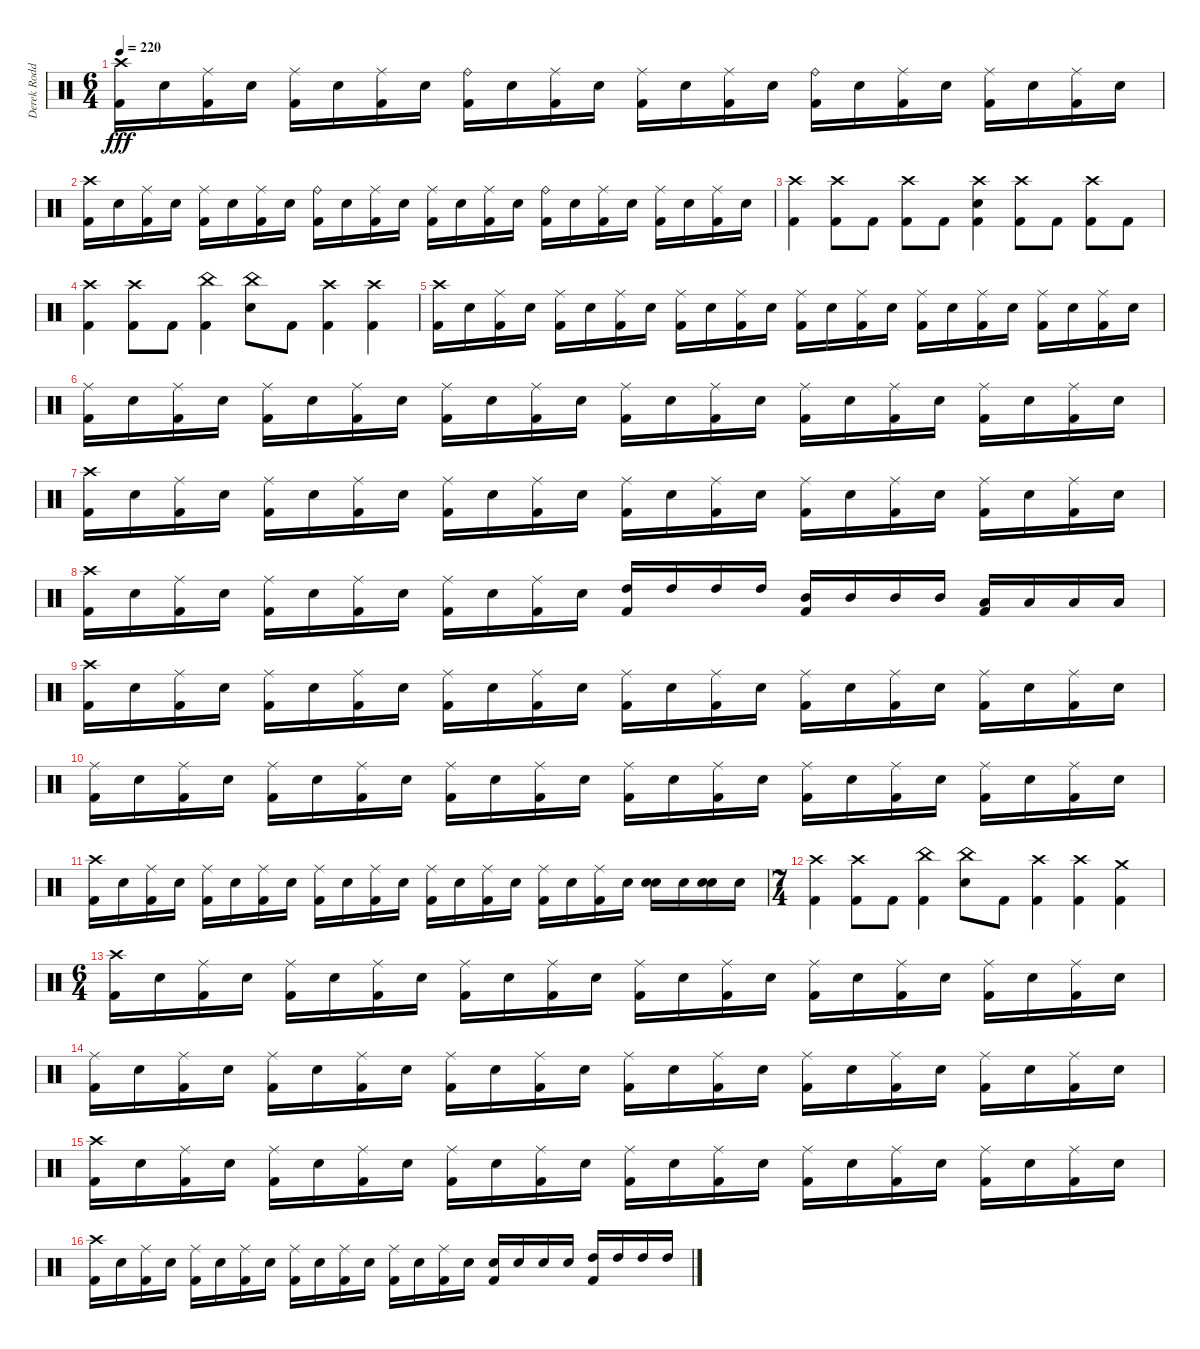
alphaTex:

\track ("Derek Roddy" "Derek Rodd") {instrument percussion}
\staff {score}
\articulation defaults
\ts (6 4)
\tempo 220
\clef neutral
\ks c
("Crash high (hit)" "Kick (hit) 2").16{dy fff} "Snare (hit) 2".16 ("Ride (middle)" "Kick (hit) 2").16 "Snare (hit) 2".16 ("Ride (middle)" "Kick (hit) 2").16 "Snare (hit) 2".16 ("Ride (middle)" "Kick (hit) 2").16 "Snare (hit) 2".16 ("Ride (bell)" "Kick (hit) 2").16 "Snare (hit) 2".16 ("Ride (middle)" "Kick (hit) 2").16 "Snare (hit) 2".16 ("Ride (middle)" "Kick (hit) 2").16 "Snare (hit) 2".16 ("Ride (middle)" "Kick (hit) 2").16 "Snare (hit) 2".16 ("Ride (bell)" "Kick (hit) 2").16 "Snare (hit) 2".16 ("Ride (middle)" "Kick (hit) 2").16 "Snare (hit) 2".16 ("Ride (middle)" "Kick (hit) 2").16 "Snare (hit) 2".16 ("Ride (middle)" "Kick (hit) 2").16 "Snare (hit) 2".16 |
("Crash high (hit)" "Kick (hit) 2").16 "Snare (hit) 2".16 ("Ride (middle)" "Kick (hit) 2").16 "Snare (hit) 2".16 ("Ride (middle)" "Kick (hit) 2").16 "Snare (hit) 2".16 ("Ride (middle)" "Kick (hit) 2").16 "Snare (hit) 2".16 ("Ride (bell)" "Kick (hit) 2").16 "Snare (hit) 2".16 ("Ride (middle)" "Kick (hit) 2").16 "Snare (hit) 2".16 ("Ride (middle)" "Kick (hit) 2").16 "Snare (hit) 2".16 ("Ride (middle)" "Kick (hit) 2").16 "Snare (hit) 2".16 ("Ride (bell)" "Kick (hit) 2").16 "Snare (hit) 2".16 ("Ride (middle)" "Kick (hit) 2").16 "Snare (hit) 2".16 ("Ride (middle)" "Kick (hit) 2").16 "Snare (hit) 2".16 ("Ride (middle)" "Kick (hit) 2").16 "Snare (hit) 2".16 |
("Crash high (hit)" "Kick (hit) 2").4 ("Crash high (hit)" "Kick (hit) 2").8 "Kick (hit) 2".8 ("Crash high (hit)" "Kick (hit) 2").8 "Kick (hit) 2".8 ("Crash high (hit)" "Snare (hit) 2" "Kick (hit) 2").4 ("Crash high (hit)" "Kick (hit) 2").8 "Kick (hit) 2".8 ("Crash high (hit)" "Kick (hit) 2").8 "Kick (hit) 2".8 |
("Crash high (hit)" "Kick (hit) 2").4 ("Crash high (hit)" "Kick (hit) 2").8 "Kick (hit) 2".8 ("China (hit)" "Kick (hit) 2").4 ("China (hit)" "Snare (hit) 2").8 "Kick (hit) 2".8 ("Crash high (hit)" "Kick (hit) 2").4 ("Crash high (hit)" "Kick (hit) 2").4 |
("Crash high (hit)" "Kick (hit) 2").16 "Snare (hit) 2".16 ("Ride (middle)" "Kick (hit) 2").16 "Snare (hit) 2".16 ("Ride (middle)" "Kick (hit) 2").16 "Snare (hit) 2".16 ("Ride (middle)" "Kick (hit) 2").16 "Snare (hit) 2".16 ("Ride (middle)" "Kick (hit) 2").16 "Snare (hit) 2".16 ("Ride (middle)" "Kick (hit) 2").16 "Snare (hit) 2".16 ("Ride (middle)" "Kick (hit) 2").16 "Snare (hit) 2".16 ("Ride (middle)" "Kick (hit) 2").16 "Snare (hit) 2".16 ("Ride (middle)" "Kick (hit) 2").16 "Snare (hit) 2".16 ("Ride (middle)" "Kick (hit) 2").16 "Snare (hit) 2".16 ("Ride (middle)" "Kick (hit) 2").16 "Snare (hit) 2".16 ("Ride (middle)" "Kick (hit) 2").16 "Snare (hit) 2".16 |
("Ride (middle)" "Kick (hit) 2").16 "Snare (hit) 2".16 ("Ride (middle)" "Kick (hit) 2").16 "Snare (hit) 2".16 ("Ride (middle)" "Kick (hit) 2").16 "Snare (hit) 2".16 ("Ride (middle)" "Kick (hit) 2").16 "Snare (hit) 2".16 ("Ride (middle)" "Kick (hit) 2").16 "Snare (hit) 2".16 ("Ride (middle)" "Kick (hit) 2").16 "Snare (hit) 2".16 ("Ride (middle)" "Kick (hit) 2").16 "Snare (hit) 2".16 ("Ride (middle)" "Kick (hit) 2").16 "Snare (hit) 2".16 ("Ride (middle)" "Kick (hit) 2").16 "Snare (hit) 2".16 ("Ride (middle)" "Kick (hit) 2").16 "Snare (hit) 2".16 ("Ride (middle)" "Kick (hit) 2").16 "Snare (hit) 2".16 ("Ride (middle)" "Kick (hit) 2").16 "Snare (hit) 2".16 |
("Crash high (hit)" "Kick (hit) 2").16 "Snare (hit) 2".16 ("Ride (middle)" "Kick (hit) 2").16 "Snare (hit) 2".16 ("Ride (middle)" "Kick (hit) 2").16 "Snare (hit) 2".16 ("Ride (middle)" "Kick (hit) 2").16 "Snare (hit) 2".16 ("Ride (middle)" "Kick (hit) 2").16 "Snare (hit) 2".16 ("Ride (middle)" "Kick (hit) 2").16 "Snare (hit) 2".16 ("Ride (middle)" "Kick (hit) 2").16 "Snare (hit) 2".16 ("Ride (middle)" "Kick (hit) 2").16 "Snare (hit) 2".16 ("Ride (middle)" "Kick (hit) 2").16 "Snare (hit) 2".16 ("Ride (middle)" "Kick (hit) 2").16 "Snare (hit) 2".16 ("Ride (middle)" "Kick (hit) 2").16 "Snare (hit) 2".16 ("Ride (middle)" "Kick (hit) 2").16 "Snare (hit) 2".16 |
("Crash high (hit)" "Kick (hit) 2").16 "Snare (hit) 2".16 ("Ride (middle)" "Kick (hit) 2").16 "Snare (hit) 2".16 ("Ride (middle)" "Kick (hit) 2").16 "Snare (hit) 2".16 ("Ride (middle)" "Kick (hit) 2").16 "Snare (hit) 2".16 ("Ride (middle)" "Kick (hit) 2").16 "Snare (hit) 2".16 ("Ride (middle)" "Kick (hit) 2").16 "Snare (hit) 2".16 ("High Tom (hit)" "Kick (hit) 2").16 "High Tom (hit)".16 "High Tom (hit)".16 "High Tom (hit)".16 ("Mid Tom (hit)" "Kick (hit) 2").16 "Mid Tom (hit)".16 "Mid Tom (hit)".16 "Mid Tom (hit)".16 ("Low Tom (hit)" "Kick (hit) 2").16 "Low Tom (hit)".16 "Low Tom (hit)".16 "Low Tom (hit)".16 |
("Crash high (hit)" "Kick (hit) 2").16 "Snare (hit) 2".16 ("Ride (middle)" "Kick (hit) 2").16 "Snare (hit) 2".16 ("Ride (middle)" "Kick (hit) 2").16 "Snare (hit) 2".16 ("Ride (middle)" "Kick (hit) 2").16 "Snare (hit) 2".16 ("Ride (middle)" "Kick (hit) 2").16 "Snare (hit) 2".16 ("Ride (middle)" "Kick (hit) 2").16 "Snare (hit) 2".16 ("Ride (middle)" "Kick (hit) 2").16 "Snare (hit) 2".16 ("Ride (middle)" "Kick (hit) 2").16 "Snare (hit) 2".16 ("Ride (middle)" "Kick (hit) 2").16 "Snare (hit) 2".16 ("Ride (middle)" "Kick (hit) 2").16 "Snare (hit) 2".16 ("Ride (middle)" "Kick (hit) 2").16 "Snare (hit) 2".16 ("Ride (middle)" "Kick (hit) 2").16 "Snare (hit) 2".16 |
("Ride (middle)" "Kick (hit) 2").16 "Snare (hit) 2".16 ("Ride (middle)" "Kick (hit) 2").16 "Snare (hit) 2".16 ("Ride (middle)" "Kick (hit) 2").16 "Snare (hit) 2".16 ("Ride (middle)" "Kick (hit) 2").16 "Snare (hit) 2".16 ("Ride (middle)" "Kick (hit) 2").16 "Snare (hit) 2".16 ("Ride (middle)" "Kick (hit) 2").16 "Snare (hit) 2".16 ("Ride (middle)" "Kick (hit) 2").16 "Snare (hit) 2".16 ("Ride (middle)" "Kick (hit) 2").16 "Snare (hit) 2".16 ("Ride (middle)" "Kick (hit) 2").16 "Snare (hit) 2".16 ("Ride (middle)" "Kick (hit) 2").16 "Snare (hit) 2".16 ("Ride (middle)" "Kick (hit) 2").16 "Snare (hit) 2".16 ("Ride (middle)" "Kick (hit) 2").16 "Snare (hit) 2".16 |
("Crash high (hit)" "Kick (hit) 2").16 "Snare (hit) 2".16 ("Ride (middle)" "Kick (hit) 2").16 "Snare (hit) 2".16 ("Ride (middle)" "Kick (hit) 2").16 "Snare (hit) 2".16 ("Ride (middle)" "Kick (hit) 2").16 "Snare (hit) 2".16 ("Ride (middle)" "Kick (hit) 2").16 "Snare (hit) 2".16 ("Ride (middle)" "Kick (hit) 2").16 "Snare (hit) 2".16 ("Ride (middle)" "Kick (hit) 2").16 "Snare (hit) 2".16 ("Ride (middle)" "Kick (hit) 2").16 "Snare (hit) 2".16 ("Ride (middle)" "Kick (hit) 2").16 "Snare (hit) 2".16 ("Ride (middle)" "Kick (hit) 2").16 "Snare (hit) 2".16 ("Snare (hit)" "Snare (hit) 2").16 "Snare (hit) 2".16 ("Snare (hit)" "Snare (hit) 2").16 "Snare (hit) 2".16 |
\ts (7 4)
("Crash high (hit)" "Kick (hit) 2").4 ("Crash high (hit)" "Kick (hit) 2").8 "Kick (hit) 2".8 ("China (hit)" "Kick (hit) 2").4 ("China (hit)" "Snare (hit) 2").8 "Kick (hit) 2".8 ("Crash high (hit)" "Kick (hit) 2").4 ("Crash high (hit)" "Kick (hit) 2").4 ("Kick (hit) 2" "Crash medium (hit)").4 |
\ts (6 4)
("Crash high (hit)" "Kick (hit) 2").16 "Snare (hit) 2".16 ("Ride (middle)" "Kick (hit) 2").16 "Snare (hit) 2".16 ("Ride (middle)" "Kick (hit) 2").16 "Snare (hit) 2".16 ("Ride (middle)" "Kick (hit) 2").16 "Snare (hit) 2".16 ("Ride (middle)" "Kick (hit) 2").16 "Snare (hit) 2".16 ("Ride (middle)" "Kick (hit) 2").16 "Snare (hit) 2".16 ("Ride (middle)" "Kick (hit) 2").16 "Snare (hit) 2".16 ("Ride (middle)" "Kick (hit) 2").16 "Snare (hit) 2".16 ("Ride (middle)" "Kick (hit) 2").16 "Snare (hit) 2".16 ("Ride (middle)" "Kick (hit) 2").16 "Snare (hit) 2".16 ("Ride (middle)" "Kick (hit) 2").16 "Snare (hit) 2".16 ("Ride (middle)" "Kick (hit) 2").16 "Snare (hit) 2".16 |
("Ride (middle)" "Kick (hit) 2").16 "Snare (hit) 2".16 ("Ride (middle)" "Kick (hit) 2").16 "Snare (hit) 2".16 ("Ride (middle)" "Kick (hit) 2").16 "Snare (hit) 2".16 ("Ride (middle)" "Kick (hit) 2").16 "Snare (hit) 2".16 ("Ride (middle)" "Kick (hit) 2").16 "Snare (hit) 2".16 ("Ride (middle)" "Kick (hit) 2").16 "Snare (hit) 2".16 ("Ride (middle)" "Kick (hit) 2").16 "Snare (hit) 2".16 ("Ride (middle)" "Kick (hit) 2").16 "Snare (hit) 2".16 ("Ride (middle)" "Kick (hit) 2").16 "Snare (hit) 2".16 ("Ride (middle)" "Kick (hit) 2").16 "Snare (hit) 2".16 ("Ride (middle)" "Kick (hit) 2").16 "Snare (hit) 2".16 ("Ride (middle)" "Kick (hit) 2").16 "Snare (hit) 2".16 |
("Crash high (hit)" "Kick (hit) 2").16 "Snare (hit) 2".16 ("Ride (middle)" "Kick (hit) 2").16 "Snare (hit) 2".16 ("Ride (middle)" "Kick (hit) 2").16 "Snare (hit) 2".16 ("Ride (middle)" "Kick (hit) 2").16 "Snare (hit) 2".16 ("Ride (middle)" "Kick (hit) 2").16 "Snare (hit) 2".16 ("Ride (middle)" "Kick (hit) 2").16 "Snare (hit) 2".16 ("Ride (middle)" "Kick (hit) 2").16 "Snare (hit) 2".16 ("Ride (middle)" "Kick (hit) 2").16 "Snare (hit) 2".16 ("Ride (middle)" "Kick (hit) 2").16 "Snare (hit) 2".16 ("Ride (middle)" "Kick (hit) 2").16 "Snare (hit) 2".16 ("Ride (middle)" "Kick (hit) 2").16 "Snare (hit) 2".16 ("Ride (middle)" "Kick (hit) 2").16 "Snare (hit) 2".16 |
("Crash high (hit)" "Kick (hit) 2").16 "Snare (hit) 2".16 ("Ride (middle)" "Kick (hit) 2").16 "Snare (hit) 2".16 ("Ride (middle)" "Kick (hit) 2").16 "Snare (hit) 2".16 ("Ride (middle)" "Kick (hit) 2").16 "Snare (hit) 2".16 ("Ride (middle)" "Kick (hit) 2").16 "Snare (hit) 2".16 ("Ride (middle)" "Kick (hit) 2").16 "Snare (hit) 2".16 ("Ride (middle)" "Kick (hit) 2").16 "Snare (hit) 2".16 ("Ride (middle)" "Kick (hit) 2").16 "Snare (hit) 2".16 ("Snare (hit) 2" "Kick (hit) 2").16 "Snare (hit) 2".16 "Snare (hit) 2".16 "Snare (hit) 2".16 ("High Tom (hit)" "Kick (hit) 2").16 "High Tom (hit)".16 "High Tom (hit)".16 "High Tom (hit)".16
